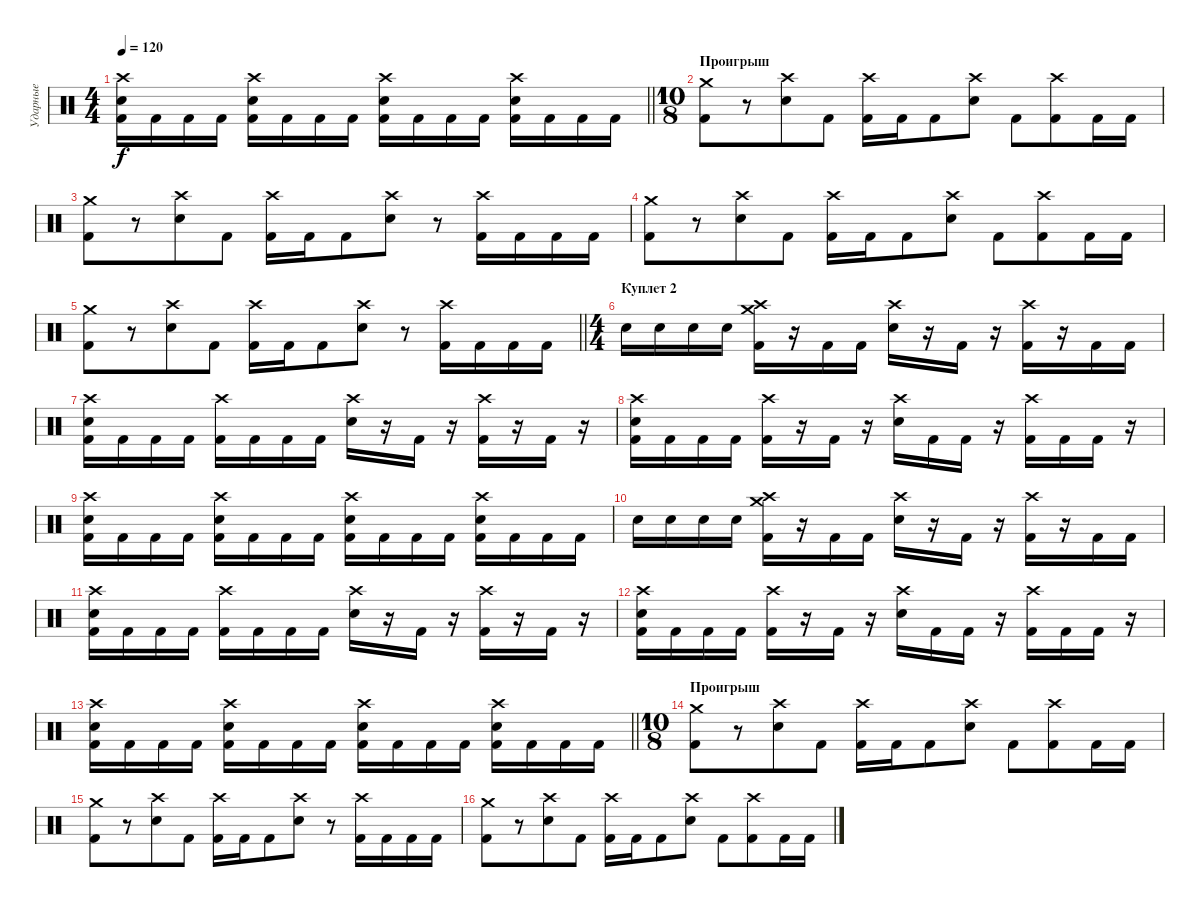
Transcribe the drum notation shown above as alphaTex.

\track ("Ударные" "Ударные") {instrument percussion}
\staff {score}
\articulation defaults
\ts (4 4)
\tempo 120
\clef neutral
\barLineRight lightlight
\ks c
("Crash high (hit)" "Electric Snare (hit)" "Kick (hit) 2").16{dy f} "Kick (hit) 2".16 "Kick (hit) 2".16 "Kick (hit) 2".16 ("Crash high (hit)" "Electric Snare (hit)" "Kick (hit) 2").16 "Kick (hit) 2".16 "Kick (hit) 2".16 "Kick (hit) 2".16 ("Crash high (hit)" "Electric Snare (hit)" "Kick (hit) 2").16 "Kick (hit) 2".16 "Kick (hit) 2".16 "Kick (hit) 2".16 ("Crash high (hit)" "Electric Snare (hit)" "Kick (hit) 2").16 "Kick (hit) 2".16 "Kick (hit) 2".16 "Kick (hit) 2".16 |
\ts (10 8)
\section ("" "Проигрыш")
("Crash medium (hit)" "Kick (hit) 2").8 r.8 ("Crash high (hit)" "Electric Snare (hit)").8 "Kick (hit) 2".8 ("Crash high (hit)" "Kick (hit) 2").16 "Kick (hit) 2".16 "Kick (hit) 2".8 ("Crash high (hit)" "Electric Snare (hit)").8 "Kick (hit) 2".8 ("Crash high (hit)" "Kick (hit) 2").8 "Kick (hit) 2".16 "Kick (hit) 2".16 |
("Crash medium (hit)" "Kick (hit) 2").8 r.8 ("Crash high (hit)" "Electric Snare (hit)").8 "Kick (hit) 2".8 ("Crash high (hit)" "Kick (hit) 2").16 "Kick (hit) 2".16 "Kick (hit) 2".8 ("Crash high (hit)" "Electric Snare (hit)").8 r.8 ("Crash high (hit)" "Kick (hit) 2").16 "Kick (hit) 2".16 "Kick (hit) 2".16 "Kick (hit) 2".16 |
("Crash medium (hit)" "Kick (hit) 2").8 r.8 ("Crash high (hit)" "Electric Snare (hit)").8 "Kick (hit) 2".8 ("Crash high (hit)" "Kick (hit) 2").16 "Kick (hit) 2".16 "Kick (hit) 2".8 ("Crash high (hit)" "Electric Snare (hit)").8 "Kick (hit) 2".8 ("Crash high (hit)" "Kick (hit) 2").8 "Kick (hit) 2".16 "Kick (hit) 2".16 |
\barLineRight lightlight
("Crash medium (hit)" "Kick (hit) 2").8 r.8 ("Crash high (hit)" "Electric Snare (hit)").8 "Kick (hit) 2".8 ("Crash high (hit)" "Kick (hit) 2").16 "Kick (hit) 2".16 "Kick (hit) 2".8 ("Crash high (hit)" "Electric Snare (hit)").8 r.8 ("Crash high (hit)" "Kick (hit) 2").16 "Kick (hit) 2".16 "Kick (hit) 2".16 "Kick (hit) 2".16 |
\ts (4 4)
\section ("" "Куплет 2")
"Electric Snare (hit)".16 "Electric Snare (hit)".16 "Electric Snare (hit)".16 "Electric Snare (hit)".16 ("Crash medium (hit)" "Crash high (hit)" "Kick (hit) 2").16 r.16 "Kick (hit) 2".16 "Kick (hit) 2".16 ("Crash high (hit)" "Electric Snare (hit)").16 r.16 "Kick (hit) 2".16 r.16 ("Crash high (hit)" "Kick (hit) 2").16 r.16 "Kick (hit) 2".16 "Kick (hit) 2".16 |
("Crash high (hit)" "Electric Snare (hit)" "Kick (hit) 2").16 "Kick (hit) 2".16 "Kick (hit) 2".16 "Kick (hit) 2".16 ("Crash high (hit)" "Kick (hit) 2").16 "Kick (hit) 2".16 "Kick (hit) 2".16 "Kick (hit) 2".16 ("Crash high (hit)" "Electric Snare (hit)").16 r.16 "Kick (hit) 2".16 r.16 ("Crash high (hit)" "Kick (hit) 2").16 r.16 "Kick (hit) 2".16 r.16 |
("Crash high (hit)" "Electric Snare (hit)" "Kick (hit) 2").16 "Kick (hit) 2".16 "Kick (hit) 2".16 "Kick (hit) 2".16 ("Crash high (hit)" "Kick (hit) 2").16 r.16 "Kick (hit) 2".16 r.16 ("Crash high (hit)" "Electric Snare (hit)").16 "Kick (hit) 2".16 "Kick (hit) 2".16 r.16 ("Crash high (hit)" "Kick (hit) 2").16 "Kick (hit) 2".16 "Kick (hit) 2".16 r.16 |
("Crash high (hit)" "Electric Snare (hit)" "Kick (hit) 2").16 "Kick (hit) 2".16 "Kick (hit) 2".16 "Kick (hit) 2".16 ("Crash high (hit)" "Electric Snare (hit)" "Kick (hit) 2").16 "Kick (hit) 2".16 "Kick (hit) 2".16 "Kick (hit) 2".16 ("Crash high (hit)" "Electric Snare (hit)" "Kick (hit) 2").16 "Kick (hit) 2".16 "Kick (hit) 2".16 "Kick (hit) 2".16 ("Crash high (hit)" "Electric Snare (hit)" "Kick (hit) 2").16 "Kick (hit) 2".16 "Kick (hit) 2".16 "Kick (hit) 2".16 |
"Electric Snare (hit)".16 "Electric Snare (hit)".16 "Electric Snare (hit)".16 "Electric Snare (hit)".16 ("Crash medium (hit)" "Crash high (hit)" "Kick (hit) 2").16 r.16 "Kick (hit) 2".16 "Kick (hit) 2".16 ("Crash high (hit)" "Electric Snare (hit)").16 r.16 "Kick (hit) 2".16 r.16 ("Crash high (hit)" "Kick (hit) 2").16 r.16 "Kick (hit) 2".16 "Kick (hit) 2".16 |
("Crash high (hit)" "Electric Snare (hit)" "Kick (hit) 2").16 "Kick (hit) 2".16 "Kick (hit) 2".16 "Kick (hit) 2".16 ("Crash high (hit)" "Kick (hit) 2").16 "Kick (hit) 2".16 "Kick (hit) 2".16 "Kick (hit) 2".16 ("Crash high (hit)" "Electric Snare (hit)").16 r.16 "Kick (hit) 2".16 r.16 ("Crash high (hit)" "Kick (hit) 2").16 r.16 "Kick (hit) 2".16 r.16 |
("Crash high (hit)" "Electric Snare (hit)" "Kick (hit) 2").16 "Kick (hit) 2".16 "Kick (hit) 2".16 "Kick (hit) 2".16 ("Crash high (hit)" "Kick (hit) 2").16 r.16 "Kick (hit) 2".16 r.16 ("Crash high (hit)" "Electric Snare (hit)").16 "Kick (hit) 2".16 "Kick (hit) 2".16 r.16 ("Crash high (hit)" "Kick (hit) 2").16 "Kick (hit) 2".16 "Kick (hit) 2".16 r.16 |
\barLineRight lightlight
("Crash high (hit)" "Electric Snare (hit)" "Kick (hit) 2").16 "Kick (hit) 2".16 "Kick (hit) 2".16 "Kick (hit) 2".16 ("Crash high (hit)" "Electric Snare (hit)" "Kick (hit) 2").16 "Kick (hit) 2".16 "Kick (hit) 2".16 "Kick (hit) 2".16 ("Crash high (hit)" "Electric Snare (hit)" "Kick (hit) 2").16 "Kick (hit) 2".16 "Kick (hit) 2".16 "Kick (hit) 2".16 ("Crash high (hit)" "Electric Snare (hit)" "Kick (hit) 2").16 "Kick (hit) 2".16 "Kick (hit) 2".16 "Kick (hit) 2".16 |
\ts (10 8)
\section ("" "Проигрыш")
("Crash medium (hit)" "Kick (hit) 2").8 r.8 ("Crash high (hit)" "Electric Snare (hit)").8 "Kick (hit) 2".8 ("Crash high (hit)" "Kick (hit) 2").16 "Kick (hit) 2".16 "Kick (hit) 2".8 ("Crash high (hit)" "Electric Snare (hit)").8 "Kick (hit) 2".8 ("Crash high (hit)" "Kick (hit) 2").8 "Kick (hit) 2".16 "Kick (hit) 2".16 |
("Crash medium (hit)" "Kick (hit) 2").8 r.8 ("Crash high (hit)" "Electric Snare (hit)").8 "Kick (hit) 2".8 ("Crash high (hit)" "Kick (hit) 2").16 "Kick (hit) 2".16 "Kick (hit) 2".8 ("Crash high (hit)" "Electric Snare (hit)").8 r.8 ("Crash high (hit)" "Kick (hit) 2").16 "Kick (hit) 2".16 "Kick (hit) 2".16 "Kick (hit) 2".16 |
("Crash medium (hit)" "Kick (hit) 2").8 r.8 ("Crash high (hit)" "Electric Snare (hit)").8 "Kick (hit) 2".8 ("Crash high (hit)" "Kick (hit) 2").16 "Kick (hit) 2".16 "Kick (hit) 2".8 ("Crash high (hit)" "Electric Snare (hit)").8 "Kick (hit) 2".8 ("Crash high (hit)" "Kick (hit) 2").8 "Kick (hit) 2".16 "Kick (hit) 2".16
